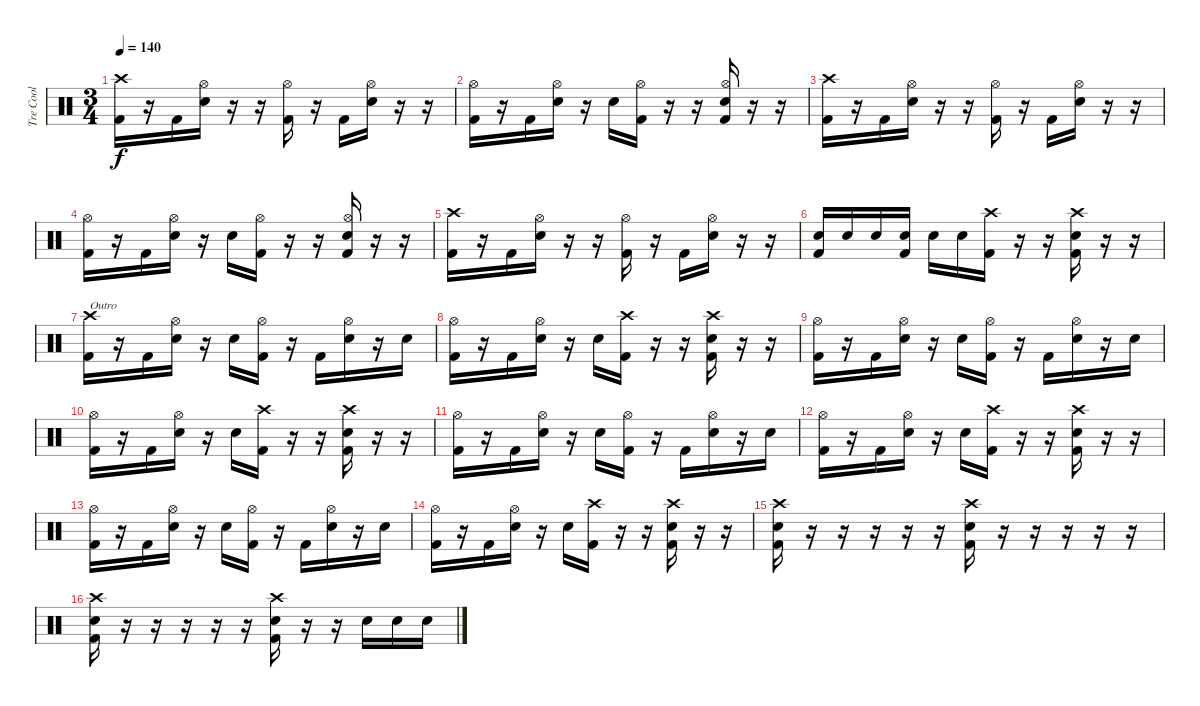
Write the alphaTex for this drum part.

\track ("Tre Cool" "Tre Cool") {instrument percussion}
\staff {score}
\articulation defaults
\ts (3 4)
\tempo 140
\clef neutral
\ks c
("Crash high (hit)" "Kick (hit) 2").16{dy f} r.16 "Kick (hit) 2".16 ("Hi-Hat (open)" "Snare (hit) 2").16 r.16 r.16 ("Hi-Hat (open)" "Kick (hit) 2").16 r.16 "Kick (hit) 2".16 ("Hi-Hat (open)" "Snare (hit) 2").16 r.16 r.16 |
("Hi-Hat (open)" "Kick (hit) 2").16 r.16 "Kick (hit) 2".16 ("Hi-Hat (open)" "Snare (hit) 2").16 r.16 "Snare (hit) 2".16 ("Hi-Hat (open)" "Kick (hit) 2").16 r.16 r.16 ("Hi-Hat (open)" "Snare (hit) 2" "Kick (hit) 2").16 r.16 r.16 |
("Crash high (hit)" "Kick (hit) 2").16 r.16 "Kick (hit) 2".16 ("Hi-Hat (open)" "Snare (hit) 2").16 r.16 r.16 ("Hi-Hat (open)" "Kick (hit) 2").16 r.16 "Kick (hit) 2".16 ("Hi-Hat (open)" "Snare (hit) 2").16 r.16 r.16 |
("Hi-Hat (open)" "Kick (hit) 2").16 r.16 "Kick (hit) 2".16 ("Hi-Hat (open)" "Snare (hit) 2").16 r.16 "Snare (hit) 2".16 ("Hi-Hat (open)" "Kick (hit) 2").16 r.16 r.16 ("Hi-Hat (open)" "Snare (hit) 2" "Kick (hit) 2").16 r.16 r.16 |
("Crash high (hit)" "Kick (hit) 2").16 r.16 "Kick (hit) 2".16 ("Hi-Hat (open)" "Snare (hit) 2").16 r.16 r.16 ("Hi-Hat (open)" "Kick (hit) 2").16 r.16 "Kick (hit) 2".16 ("Hi-Hat (open)" "Snare (hit) 2").16 r.16 r.16 |
("Snare (hit) 2" "Kick (hit) 2").16 "Snare (hit) 2".16 "Snare (hit) 2".16 ("Snare (hit) 2" "Kick (hit) 2").16 "Snare (hit) 2".16 "Snare (hit) 2".16 ("Crash high (hit)" "Kick (hit) 2").16 r.16 r.16 ("Crash high (hit)" "Snare (hit) 2" "Kick (hit) 2").16 r.16 r.16 |
("Crash high (hit)" "Kick (hit) 2").16{txt "Outro"} r.16 "Kick (hit) 2".16 ("Hi-Hat (open)" "Snare (hit) 2").16 r.16 "Snare (hit) 2".16 ("Hi-Hat (open)" "Kick (hit) 2").16 r.16 "Kick (hit) 2".16 ("Hi-Hat (open)" "Snare (hit) 2").16 r.16 "Snare (hit) 2".16 |
("Hi-Hat (open)" "Kick (hit) 2").16 r.16 "Kick (hit) 2".16 ("Hi-Hat (open)" "Snare (hit) 2").16 r.16 "Snare (hit) 2".16 ("Crash high (hit)" "Kick (hit) 2").16 r.16 r.16 ("Crash high (hit)" "Snare (hit) 2" "Kick (hit) 2").16 r.16 r.16 |
("Hi-Hat (open)" "Kick (hit) 2").16 r.16 "Kick (hit) 2".16 ("Hi-Hat (open)" "Snare (hit) 2").16 r.16 "Snare (hit) 2".16 ("Hi-Hat (open)" "Kick (hit) 2").16 r.16 "Kick (hit) 2".16 ("Hi-Hat (open)" "Snare (hit) 2").16 r.16 "Snare (hit) 2".16 |
("Hi-Hat (open)" "Kick (hit) 2").16 r.16 "Kick (hit) 2".16 ("Hi-Hat (open)" "Snare (hit) 2").16 r.16 "Snare (hit) 2".16 ("Crash high (hit)" "Kick (hit) 2").16 r.16 r.16 ("Crash high (hit)" "Snare (hit) 2" "Kick (hit) 2").16 r.16 r.16 |
("Hi-Hat (open)" "Kick (hit) 2").16 r.16 "Kick (hit) 2".16 ("Hi-Hat (open)" "Snare (hit) 2").16 r.16 "Snare (hit) 2".16 ("Hi-Hat (open)" "Kick (hit) 2").16 r.16 "Kick (hit) 2".16 ("Hi-Hat (open)" "Snare (hit) 2").16 r.16 "Snare (hit) 2".16 |
("Hi-Hat (open)" "Kick (hit) 2").16 r.16 "Kick (hit) 2".16 ("Hi-Hat (open)" "Snare (hit) 2").16 r.16 "Snare (hit) 2".16 ("Crash high (hit)" "Kick (hit) 2").16 r.16 r.16 ("Crash high (hit)" "Snare (hit) 2" "Kick (hit) 2").16 r.16 r.16 |
("Hi-Hat (open)" "Kick (hit) 2").16 r.16 "Kick (hit) 2".16 ("Hi-Hat (open)" "Snare (hit) 2").16 r.16 "Snare (hit) 2".16 ("Hi-Hat (open)" "Kick (hit) 2").16 r.16 "Kick (hit) 2".16 ("Hi-Hat (open)" "Snare (hit) 2").16 r.16 "Snare (hit) 2".16 |
("Hi-Hat (open)" "Kick (hit) 2").16 r.16 "Kick (hit) 2".16 ("Hi-Hat (open)" "Snare (hit) 2").16 r.16 "Snare (hit) 2".16 ("Crash high (hit)" "Kick (hit) 2").16 r.16 r.16 ("Crash high (hit)" "Snare (hit) 2" "Kick (hit) 2").16 r.16 r.16 |
("Crash high (hit)" "Snare (hit) 2" "Kick (hit) 2").16 r.16 r.16 r.16 r.16 r.16 ("Crash high (hit)" "Snare (hit) 2" "Kick (hit) 2").16 r.16 r.16 r.16 r.16 r.16 |
("Crash high (hit)" "Snare (hit) 2" "Kick (hit) 2").16 r.16 r.16 r.16 r.16 r.16 ("Crash high (hit)" "Snare (hit) 2" "Kick (hit) 2").16 r.16 r.16 "Snare (hit) 2".16 "Snare (hit) 2".16 "Snare (hit) 2".16
